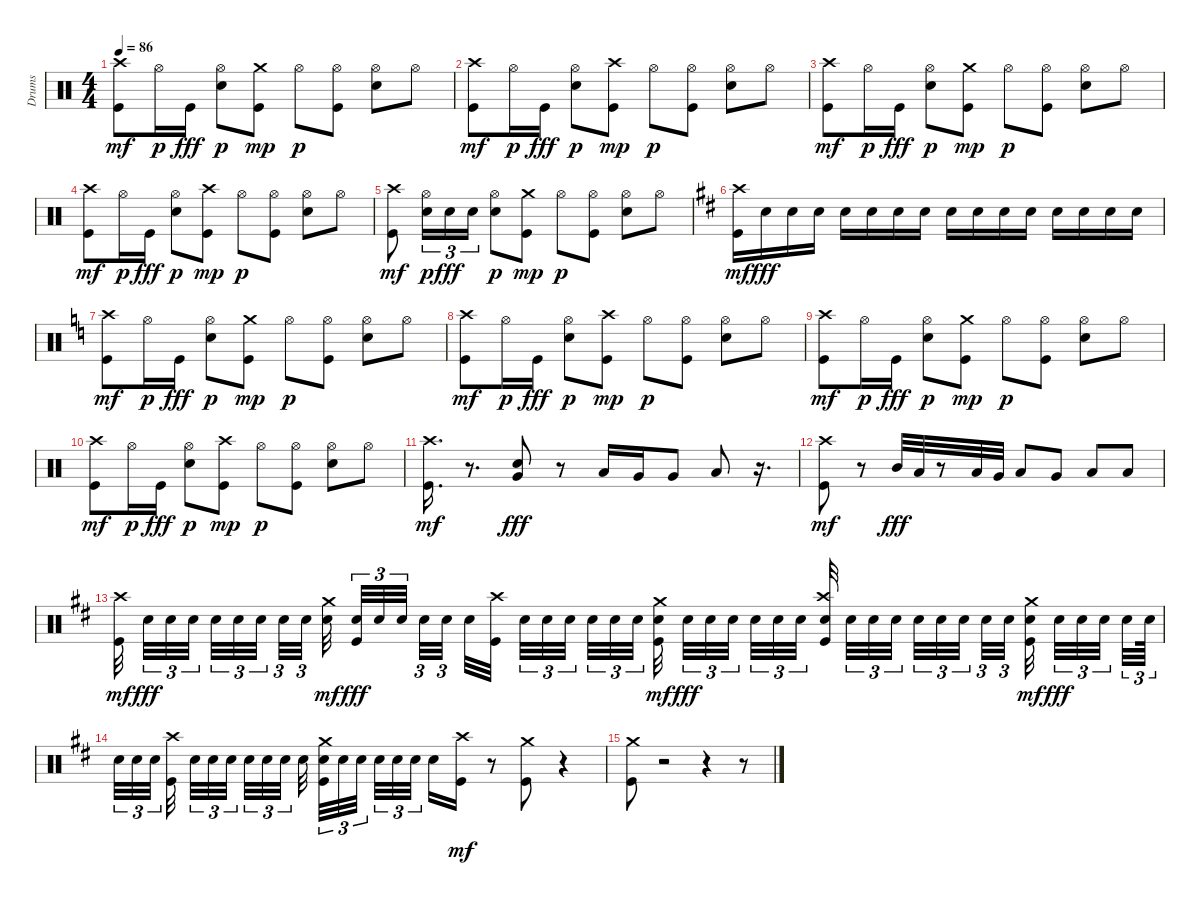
\track ("Drums" "Drums") {instrument percussion}
\staff {score}
\articulation defaults
\ts (4 4)
\tempo 86
\clef neutral
\ks c
("Kick (hit)" "Crash high (hit)").8{dy mf} "Hi-Hat (open)".16{dy p} "Kick (hit)".16{dy fff} ("Electric Snare (hit)" "Hi-Hat (open)").8{dy p} ("Kick (hit)" "Crash medium (hit)").8{dy mp} "Hi-Hat (open)".8{dy p} ("Kick (hit)" "Hi-Hat (open)").8 ("Electric Snare (hit)" "Hi-Hat (open)").8 "Hi-Hat (open)".8 |
("Kick (hit)" "Crash high (hit)").8{dy mf} "Hi-Hat (open)".16{dy p} "Kick (hit)".16{dy fff} ("Electric Snare (hit)" "Hi-Hat (open)").8{dy p} ("Kick (hit)" "Crash high (hit)").8{dy mp} "Hi-Hat (open)".8{dy p} ("Kick (hit)" "Hi-Hat (open)").8 ("Electric Snare (hit)" "Hi-Hat (open)").8 "Hi-Hat (open)".8 |
("Kick (hit)" "Crash high (hit)").8{dy mf} "Hi-Hat (open)".16{dy p} "Kick (hit)".16{dy fff} ("Electric Snare (hit)" "Hi-Hat (open)").8{dy p} ("Kick (hit)" "Crash medium (hit)").8{dy mp} "Hi-Hat (open)".8{dy p} ("Kick (hit)" "Hi-Hat (open)").8 ("Electric Snare (hit)" "Hi-Hat (open)").8 "Hi-Hat (open)".8 |
("Kick (hit)" "Crash high (hit)").8{dy mf} "Hi-Hat (open)".16{dy p} "Kick (hit)".16{dy fff} ("Electric Snare (hit)" "Hi-Hat (open)").8{dy p} ("Kick (hit)" "Crash high (hit)").8{dy mp} "Hi-Hat (open)".8{dy p} ("Kick (hit)" "Hi-Hat (open)").8 ("Electric Snare (hit)" "Hi-Hat (open)").8 "Hi-Hat (open)".8 |
("Kick (hit)" "Crash high (hit)").8{dy mf} ("Electric Snare (hit)" "Hi-Hat (open)").16{tu (3 2) dy p} "Electric Snare (hit)".16{tu (3 2) dy fff} "Electric Snare (hit)".16{tu (3 2)} ("Electric Snare (hit)" "Hi-Hat (open)").8{dy p} ("Kick (hit)" "Crash medium (hit)").8{dy mp} "Hi-Hat (open)".8{dy p} ("Kick (hit)" "Hi-Hat (open)").8 ("Electric Snare (hit)" "Hi-Hat (open)").8 "Hi-Hat (open)".8 |
\ks d
("Kick (hit)" "Crash high (hit)").16{dy mf} "Electric Snare (hit)".16{dy fff} "Electric Snare (hit)".16 "Electric Snare (hit)".16 "Electric Snare (hit)".16 "Electric Snare (hit)".16 "Electric Snare (hit)".16 "Electric Snare (hit)".16 "Electric Snare (hit)".16 "Electric Snare (hit)".16 "Electric Snare (hit)".16 "Electric Snare (hit)".16 "Electric Snare (hit)".16 "Electric Snare (hit)".16 "Electric Snare (hit)".16 "Electric Snare (hit)".16 |
\ks c
("Kick (hit)" "Crash high (hit)").8{dy mf} "Hi-Hat (open)".16{dy p} "Kick (hit)".16{dy fff} ("Electric Snare (hit)" "Hi-Hat (open)").8{dy p} ("Kick (hit)" "Crash medium (hit)").8{dy mp} "Hi-Hat (open)".8{dy p} ("Kick (hit)" "Hi-Hat (open)").8 ("Electric Snare (hit)" "Hi-Hat (open)").8 "Hi-Hat (open)".8 |
("Kick (hit)" "Crash high (hit)").8{dy mf} "Hi-Hat (open)".16{dy p} "Kick (hit)".16{dy fff} ("Electric Snare (hit)" "Hi-Hat (open)").8{dy p} ("Kick (hit)" "Crash high (hit)").8{dy mp} "Hi-Hat (open)".8{dy p} ("Kick (hit)" "Hi-Hat (open)").8 ("Electric Snare (hit)" "Hi-Hat (open)").8 "Hi-Hat (open)".8 |
("Kick (hit)" "Crash high (hit)").8{dy mf} "Hi-Hat (open)".16{dy p} "Kick (hit)".16{dy fff} ("Electric Snare (hit)" "Hi-Hat (open)").8{dy p} ("Kick (hit)" "Crash medium (hit)").8{dy mp} "Hi-Hat (open)".8{dy p} ("Kick (hit)" "Hi-Hat (open)").8 ("Electric Snare (hit)" "Hi-Hat (open)").8 "Hi-Hat (open)".8 |
("Kick (hit)" "Crash high (hit)").8{dy mf} "Hi-Hat (open)".16{dy p} "Kick (hit)".16{dy fff} ("Electric Snare (hit)" "Hi-Hat (open)").8{dy p} ("Kick (hit)" "Crash high (hit)").8{dy mp} "Hi-Hat (open)".8{dy p} ("Kick (hit)" "Hi-Hat (open)").8 ("Electric Snare (hit)" "Hi-Hat (open)").8 "Hi-Hat (open)".8 |
("Kick (hit)" "Crash high (hit)").16{d dy mf} r.8{d} ("Very Low Tom (hit)" "Electric Snare (hit)").8{dy fff} r.8 "Low Tom (hit)".16 "Very Low Tom (hit)".16 "Very Low Tom (hit)".8 "Low Floor Tom (hit)".8 r.16{d} |
("Kick (hit)" "Crash high (hit)").8{dy mf} r.8 "Mid Tom (hit)".32{dy fff} "Low Tom (hit)".32 r.8 "Low Tom (hit)".32 "Very Low Tom (hit)".32 "Low Floor Tom (hit)".8 "Very Low Tom (hit)".8 "Low Floor Tom (hit)".8 "Low Floor Tom (hit)".8 |
\ks d
("Kick (hit)" "Crash high (hit)").32{dy mf beam splitsecondary} "Electric Snare (hit)".32{tu (3 2) dy fff} "Electric Snare (hit)".32{tu (3 2)} "Electric Snare (hit)".32{tu (3 2) beam splitsecondary} "Electric Snare (hit)".32{tu (3 2)} "Electric Snare (hit)".32{tu (3 2)} "Electric Snare (hit)".32{tu (3 2) beam splitsecondary} "Electric Snare (hit)".32{tu (3 2)} "Electric Snare (hit)".32{tu (3 2) beam splitsecondary} ("Electric Snare (hit)" "Crash medium (hit)").32{dy mf} ("Kick (hit)" "Electric Snare (hit)").32{tu (3 2) dy fff} "Electric Snare (hit)".32{tu (3 2)} "Electric Snare (hit)".32{tu (3 2) beam splitsecondary} "Electric Snare (hit)".32{tu (3 2)} "Electric Snare (hit)".32{tu (3 2) beam splitsecondary} "Electric Snare (hit)".32 ("Crash high (hit)" "Kick (hit)").32{beam splitsecondary} "Electric Snare (hit)".32{tu (3 2)} "Electric Snare (hit)".32{tu (3 2)} "Electric Snare (hit)".32{tu (3 2) beam splitsecondary} "Electric Snare (hit)".32{tu (3 2)} "Electric Snare (hit)".32{tu (3 2)} "Electric Snare (hit)".32{tu (3 2) beam splitsecondary} ("Electric Snare (hit)" "Kick (hit)" "Crash medium (hit)").32{dy mf beam splitsecondary} "Electric Snare (hit)".32{tu (3 2) dy fff} "Electric Snare (hit)".32{tu (3 2)} "Electric Snare (hit)".32{tu (3 2) beam splitsecondary} "Electric Snare (hit)".32{tu (3 2)} "Electric Snare (hit)".32{tu (3 2)} "Electric Snare (hit)".32{tu (3 2) beam splitsecondary} ("Electric Snare (hit)" "Crash high (hit)" "Kick (hit)").32{beam splitsecondary} "Electric Snare (hit)".32{tu (3 2)} "Electric Snare (hit)".32{tu (3 2)} "Electric Snare (hit)".32{tu (3 2) beam splitsecondary} "Electric Snare (hit)".32{tu (3 2)} "Electric Snare (hit)".32{tu (3 2)} "Electric Snare (hit)".32{tu (3 2) beam splitsecondary} "Electric Snare (hit)".32{tu (3 2)} "Electric Snare (hit)".32{tu (3 2) beam splitsecondary} ("Electric Snare (hit)" "Kick (hit)" "Crash medium (hit)").32{dy mf beam splitsecondary} "Electric Snare (hit)".32{tu (3 2) dy fff} "Electric Snare (hit)".32{tu (3 2)} "Electric Snare (hit)".32{tu (3 2) beam splitsecondary} "Electric Snare (hit)".32{tu (3 2)} "Electric Snare (hit)".64{tu (3 2)} |
"Electric Snare (hit)".32{tu (3 2)} "Electric Snare (hit)".32{tu (3 2)} "Electric Snare (hit)".32{tu (3 2) beam splitsecondary} ("Crash high (hit)" "Kick (hit)").32{beam splitsecondary} "Electric Snare (hit)".32{tu (3 2)} "Electric Snare (hit)".32{tu (3 2)} "Electric Snare (hit)".32{tu (3 2) beam splitsecondary} "Electric Snare (hit)".32{tu (3 2)} "Electric Snare (hit)".32{tu (3 2)} "Electric Snare (hit)".32{tu (3 2) beam splitsecondary} "Electric Snare (hit)".32 ("Crash medium (hit)" "Kick (hit)" "Electric Snare (hit)").32{tu (3 2)} "Electric Snare (hit)".32{tu (3 2)} "Electric Snare (hit)".32{tu (3 2) beam splitsecondary} "Electric Snare (hit)".32{tu (3 2)} "Electric Snare (hit)".32{tu (3 2)} "Electric Snare (hit)".32{tu (3 2) beam splitsecondary} "Electric Snare (hit)".16 ("Kick (hit)" "Crash high (hit)").16{dy mf} r.8 ("Kick (hit)" "Crash medium (hit)").8 r.4 |
("Kick (hit)" "Crash medium (hit)").8 r.2 r.4 r.8
